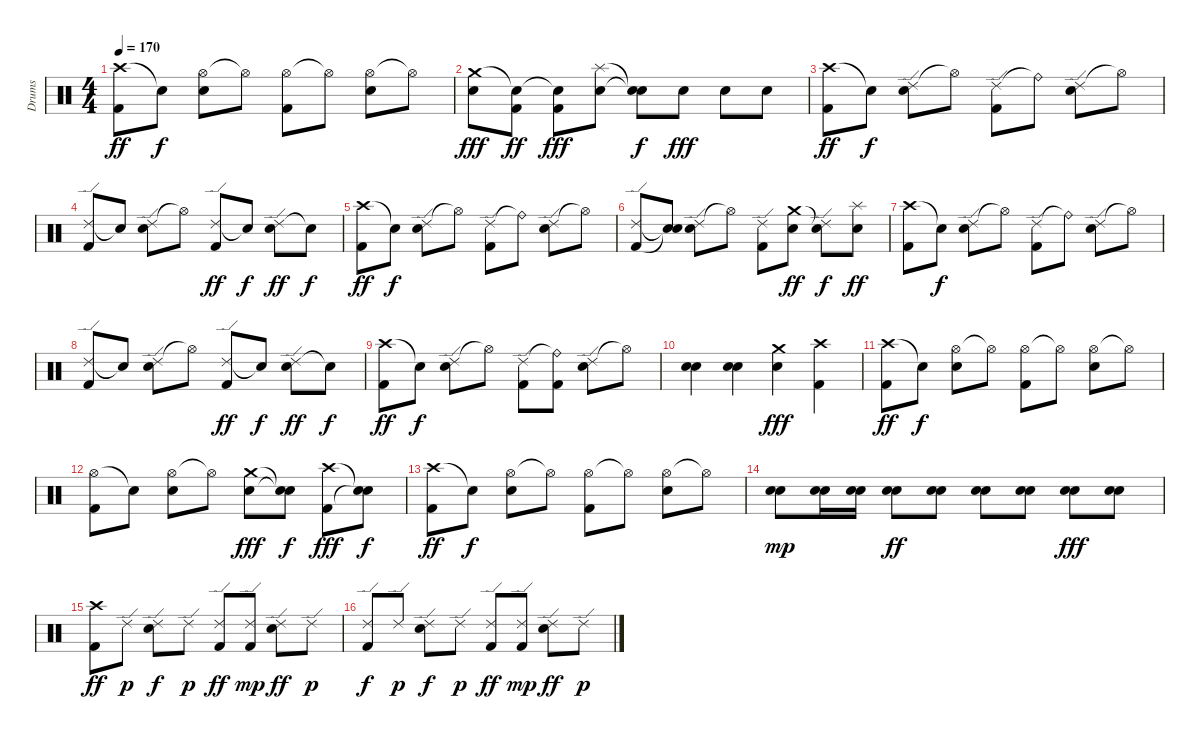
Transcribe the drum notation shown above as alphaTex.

\track ("Drums" "Drums") {instrument percussion}
\staff {score}
\articulation defaults
\ts (4 4)
\tempo 170
\clef neutral
\ks c
("Crash high (hit)" "Kick (hit) 2").8{dy ff} "Snare (hit)"{t}.8{dy f} ("Hi-Hat (open)" "Snare (hit) 2").8 "Hi-Hat (open)"{t}.8 ("Hi-Hat (open)" "Kick (hit) 2").8 "Hi-Hat (open)"{t}.8 ("Hi-Hat (open)" "Snare (hit) 2").8 "Hi-Hat (open)"{t}.8 |
("Crash medium (hit)" "Snare (hit) 2").8{dy fff} ("Snare (hit)"{t} "Kick (hit) 2").8{dy ff} ("Snare (hit)"{t} "Kick (hit) 2").8{dy fff} ("Splash (hit)" "Snare (hit) 2").8 ("Snare (hit)"{t} "Snare (hit)"{t}).8{dy f} "Snare (hit) 2".8{dy fff} "Snare (hit) 2".8 "Snare (hit) 2".8 |
("Crash high (hit)" "Kick (hit) 2").8{dy ff} "Snare (hit)"{t}.8{dy f} ("Ride (edge) 2" "Snare (hit) 2").8 "Hi-Hat (open)"{t}.8 ("Ride (edge) 2" "Kick (hit) 2").8 "Ride (bell)"{t}.8 ("Ride (edge) 2" "Snare (hit) 2").8 "Hi-Hat (open)"{t}.8 |
("Ride (edge) 2" "Kick (hit) 2").8 "Snare (hit)"{t}.8 ("Ride (edge) 2" "Snare (hit) 2").8 "Hi-Hat (open)"{t}.8 ("Ride (edge) 2" "Kick (hit) 2").8{dy ff} "Snare (hit)"{t}.8{dy f} ("Ride (edge) 2" "Snare (hit) 2").8{dy ff} "Snare (hit)"{t}.8{dy f} |
("Crash high (hit)" "Kick (hit) 2").8{dy ff} "Snare (hit)"{t}.8{dy f} ("Ride (edge) 2" "Snare (hit) 2").8 "Hi-Hat (open)"{t}.8 ("Ride (edge) 2" "Kick (hit) 2").8 "Ride (bell)"{t}.8 ("Ride (edge) 2" "Snare (hit) 2").8 "Hi-Hat (open)"{t}.8 |
("Ride (edge) 2" "Kick (hit) 2").8 ("Snare (hit)"{t} "Snare (hit)"{t}).8 ("Ride (edge) 2" "Snare (hit) 2").8 "Hi-Hat (open)"{t}.8 ("Ride (edge) 2" "Kick (hit) 2").8 ("Crash medium (hit)" "Snare (hit) 2").8{dy ff} ("Snare (hit)"{t} "Ride (edge) 2").8{dy f} ("Splash (hit)" "Snare (hit) 2").8{dy ff} |
("Crash high (hit)" "Kick (hit) 2").8 "Snare (hit)"{t}.8{dy f} ("Ride (edge) 2" "Snare (hit) 2").8 "Hi-Hat (open)"{t}.8 ("Ride (edge) 2" "Kick (hit) 2").8 "Ride (bell)"{t}.8 ("Ride (edge) 2" "Snare (hit) 2").8 "Hi-Hat (open)"{t}.8 |
("Ride (edge) 2" "Kick (hit) 2").8 "Snare (hit)"{t}.8 ("Ride (edge) 2" "Snare (hit) 2").8 "Hi-Hat (open)"{t}.8 ("Ride (edge) 2" "Kick (hit) 2").8{dy ff} "Snare (hit)"{t}.8{dy f} ("Ride (edge) 2" "Snare (hit) 2").8{dy ff} "Snare (hit)"{t}.8{dy f} |
("Crash high (hit)" "Kick (hit) 2").8{dy ff} "Snare (hit)"{t}.8{dy f} ("Ride (edge) 2" "Snare (hit) 2").8 "Hi-Hat (open)"{t}.8 ("Ride (edge) 2" "Kick (hit) 2").8 ("Ride (bell)"{t} "Kick (hit) 2").8 ("Ride (edge) 2" "Snare (hit) 2").8 "Hi-Hat (open)"{t}.8 |
("Snare (hit) 2" "Electric Snare (hit)").4 ("Snare (hit) 2" "Electric Snare (hit)").4 ("Crash medium (hit)" "Snare (hit) 2").4{dy fff} ("Crash high (hit)" "Kick (hit) 2").4 |
("Crash high (hit)" "Kick (hit) 2").8{dy ff} "Snare (hit)"{t}.8{dy f} ("Hi-Hat (open)" "Snare (hit) 2").8 "Hi-Hat (open)"{t}.8 ("Hi-Hat (open)" "Kick (hit) 2").8 "Hi-Hat (open)"{t}.8 ("Hi-Hat (open)" "Snare (hit) 2").8 "Hi-Hat (open)"{t}.8 |
("Hi-Hat (open)" "Kick (hit) 2").8 "Snare (hit)"{t}.8 ("Hi-Hat (open)" "Snare (hit) 2").8 "Hi-Hat (open)"{t}.8 ("Crash medium (hit)" "Snare (hit) 2").8{dy fff} ("Snare (hit)"{t} "Snare (hit)"{t}).8{dy f} ("Crash high (hit)" "Kick (hit) 2").8{dy fff} ("Snare (hit)"{t} "Snare (hit)"{t}).8{dy f} |
("Crash high (hit)" "Kick (hit) 2").8{dy ff} "Snare (hit)"{t}.8{dy f} ("Hi-Hat (open)" "Snare (hit) 2").8 "Hi-Hat (open)"{t}.8 ("Hi-Hat (open)" "Kick (hit) 2").8 "Hi-Hat (open)"{t}.8 ("Hi-Hat (open)" "Snare (hit) 2").8 "Hi-Hat (open)"{t}.8 |
("Electric Snare (hit)" "Snare (hit) 2").8{dy mp} ("Electric Snare (hit)" "Snare (hit) 2").16 ("Electric Snare (hit)" "Snare (hit) 2").16 ("Electric Snare (hit)" "Snare (hit) 2").8{dy ff} ("Electric Snare (hit)" "Snare (hit) 2").8 ("Electric Snare (hit)" "Snare (hit) 2").8 ("Electric Snare (hit)" "Snare (hit) 2").8 ("Electric Snare (hit)" "Snare (hit) 2").8{dy fff} ("Electric Snare (hit)" "Snare (hit) 2").8 |
("Crash high (hit)" "Kick (hit) 2").8{dy ff} "Ride (edge) 2".8{dy p} ("Ride (edge) 2" "Snare (hit) 2").8{dy f} "Ride (edge) 2".8{dy p} ("Ride (edge) 2" "Kick (hit) 2").8{dy ff} ("Ride (edge) 2" "Kick (hit) 2").8{dy mp} ("Ride (edge) 2" "Snare (hit) 2").8{dy ff} "Ride (edge) 2".8{dy p} |
("Ride (edge) 2" "Kick (hit) 2").8{dy f} "Ride (edge) 2".8{dy p} ("Ride (edge) 2" "Snare (hit) 2").8{dy f} "Ride (edge) 2".8{dy p} ("Ride (edge) 2" "Kick (hit) 2").8{dy ff} ("Ride (edge) 2" "Kick (hit) 2").8{dy mp} ("Ride (edge) 2" "Snare (hit) 2").8{dy ff} "Ride (edge) 2".8{dy p}
